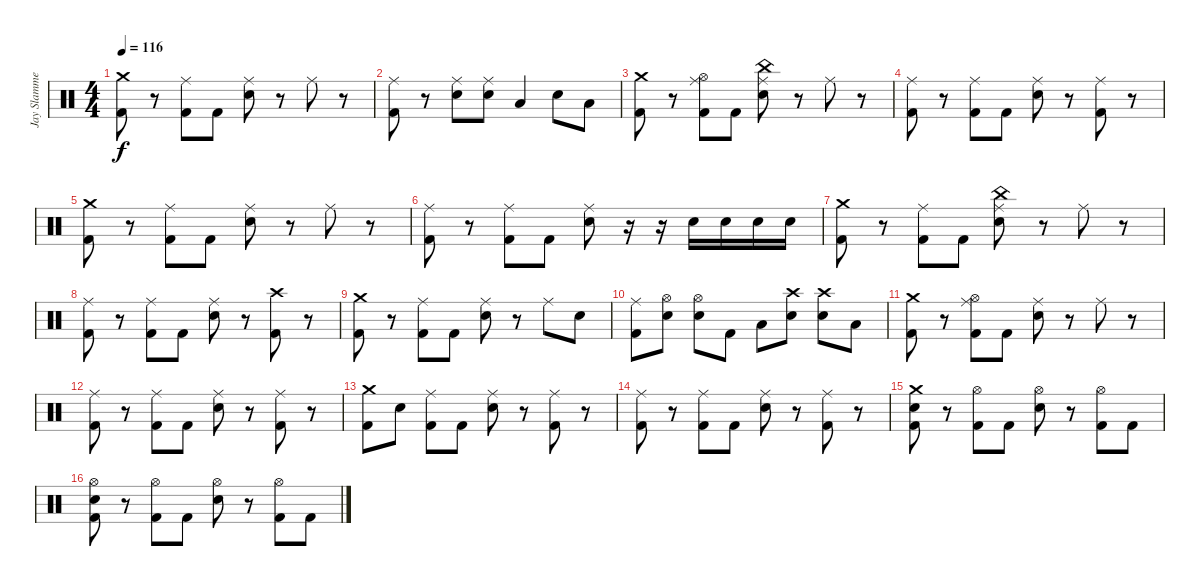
\track ("Jay Slammer " "Jay Slamme") {instrument percussion}
\staff {score}
\articulation defaults
\ts (4 4)
\tempo 116
\clef neutral
\ks c
("Crash medium (hit)" "Kick (hit) 2").8{dy f} r.8 ("Ride (middle)" "Kick (hit) 2").8 "Kick (hit) 2".8 ("Ride (middle)" "Snare (hit) 2").8 r.8 "Ride (middle)".8 r.8 |
("Ride (middle)" "Kick (hit) 2").8 r.8 ("Ride (middle)" "Snare (hit) 2").8 ("Ride (middle)" "Snare (hit) 2").8 "Low Tom (hit)".4 "Snare (hit) 2".8 "Low Tom (hit)".8 |
("Crash medium (hit)" "Kick (hit) 2").8 r.8 ("Hi-Hat (open)" "Ride (middle)" "Kick (hit) 2").8 "Kick (hit) 2".8 ("China (hit)" "Ride (middle)" "Snare (hit) 2").8 r.8 "Ride (middle)".8 r.8 |
("Ride (middle)" "Kick (hit) 2").8 r.8 ("Ride (middle)" "Kick (hit) 2").8 "Kick (hit) 2".8 ("Ride (middle)" "Snare (hit) 2").8 r.8 ("Ride (middle)" "Kick (hit) 2").8 r.8 |
("Crash medium (hit)" "Kick (hit) 2").8 r.8 ("Ride (middle)" "Kick (hit) 2").8 "Kick (hit) 2".8 ("Ride (middle)" "Snare (hit) 2").8 r.8 "Ride (middle)".8 r.8 |
("Ride (middle)" "Kick (hit) 2").8 r.8 ("Ride (middle)" "Kick (hit) 2").8 "Kick (hit) 2".8 ("Ride (middle)" "Snare (hit) 2").8 r.16 r.16 "Snare (hit) 2".16 "Snare (hit) 2".16 "Snare (hit) 2".16 "Snare (hit) 2".16 |
("Crash medium (hit)" "Kick (hit) 2").8 r.8 ("Ride (middle)" "Kick (hit) 2").8 "Kick (hit) 2".8 ("China (hit)" "Ride (middle)" "Snare (hit) 2").8 r.8 "Ride (middle)".8 r.8 |
("Ride (middle)" "Kick (hit) 2").8 r.8 ("Ride (middle)" "Kick (hit) 2").8 "Kick (hit) 2".8 ("Ride (middle)" "Snare (hit) 2").8 r.8 ("Crash high (hit)" "Kick (hit) 2").8 r.8 |
("Crash medium (hit)" "Kick (hit) 2").8 r.8 ("Ride (middle)" "Kick (hit) 2").8 "Kick (hit) 2".8 ("Ride (middle)" "Snare (hit) 2").8 r.8 "Ride (middle)".8 "Snare (hit)".8 |
("Ride (middle)" "Kick (hit) 2").8 ("Hi-Hat (open)" "Snare (hit) 2").8 ("Hi-Hat (open)" "Snare (hit) 2").8 "Kick (hit) 2".8 "Low Tom (hit)".8 ("Snare (hit) 2" "Crash high (hit)").8 ("Snare (hit) 2" "Crash high (hit)").8 "Low Tom (hit)".8 |
("Crash medium (hit)" "Kick (hit) 2").8 r.8 ("Hi-Hat (open)" "Ride (middle)" "Kick (hit) 2").8 "Kick (hit) 2".8 ("Ride (middle)" "Snare (hit) 2").8 r.8 "Ride (middle)".8 r.8 |
("Ride (middle)" "Kick (hit) 2").8 r.8 ("Ride (middle)" "Kick (hit) 2").8 "Kick (hit) 2".8 ("Ride (middle)" "Snare (hit) 2").8 r.8 ("Ride (middle)" "Kick (hit) 2").8 r.8 |
("Crash medium (hit)" "Kick (hit) 2").8 "Snare (hit)".8 ("Ride (middle)" "Kick (hit) 2").8 "Kick (hit) 2".8 ("Ride (middle)" "Snare (hit) 2").8 r.8 ("Ride (middle)" "Kick (hit) 2").8 r.8 |
("Ride (middle)" "Kick (hit) 2").8 r.8 ("Ride (middle)" "Kick (hit) 2").8 "Kick (hit) 2".8 ("Ride (middle)" "Snare (hit) 2").8 r.8 ("Ride (middle)" "Kick (hit) 2").8 r.8 |
("Crash medium (hit)" "Kick (hit) 2" "Snare (hit) 2").8 r.8 ("Hi-Hat (open)" "Kick (hit) 2").8 "Kick (hit) 2".8 ("Hi-Hat (open)" "Snare (hit) 2").8 r.8 ("Hi-Hat (open)" "Kick (hit) 2").8 "Kick (hit) 2".8 |
("Hi-Hat (open)" "Kick (hit) 2" "Snare (hit) 2").8 r.8 ("Hi-Hat (open)" "Kick (hit) 2").8 "Kick (hit) 2".8 ("Hi-Hat (open)" "Snare (hit) 2").8 r.8 ("Hi-Hat (open)" "Kick (hit) 2").8 "Kick (hit) 2".8
